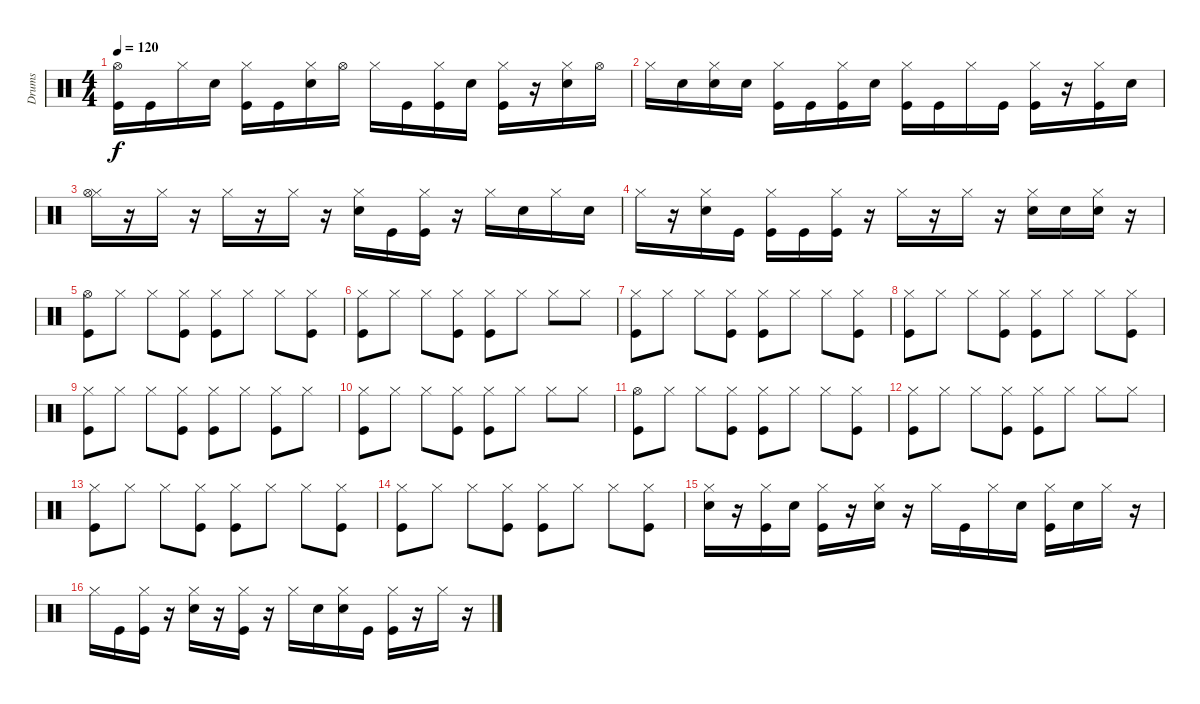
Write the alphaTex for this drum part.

\track ("Drums" "Drums") {instrument percussion}
\staff {score}
\articulation defaults
\ts (4 4)
\tempo 120
\clef neutral
\ks c
("Hi-Hat (open)" "Kick (hit)").16{dy f} "Kick (hit)".16 "Hi-Hat (closed)".16 "Electric Snare (hit)".16 ("Hi-Hat (closed)" "Kick (hit)").16 "Kick (hit)".16 ("Hi-Hat (closed)" "Electric Snare (hit)").16 "Hi-Hat (open)".16 "Hi-Hat (closed)".16 "Kick (hit)".16 ("Hi-Hat (closed)" "Kick (hit)").16 "Electric Snare (hit)".16 ("Hi-Hat (closed)" "Kick (hit)").16 r.16 ("Hi-Hat (closed)" "Electric Snare (hit)").16 "Hi-Hat (open)".16 |
"Hi-Hat (closed)".16 "Electric Snare (hit)".16 ("Hi-Hat (closed)" "Electric Snare (hit)").16 "Electric Snare (hit)".16 ("Hi-Hat (closed)" "Kick (hit)").16 "Kick (hit)".16 ("Hi-Hat (closed)" "Kick (hit)").16 "Electric Snare (hit)".16 ("Hi-Hat (closed)" "Kick (hit)").16 "Kick (hit)".16 "Hi-Hat (closed)".16 "Kick (hit)".16 ("Hi-Hat (closed)" "Kick (hit)").16 r.16 ("Hi-Hat (closed)" "Kick (hit)").16 "Electric Snare (hit)".16 |
("Hi-Hat (closed)" "Hi-Hat (open)").16 r.16 "Hi-Hat (closed)".16 r.16 "Hi-Hat (closed)".16 r.16 "Hi-Hat (closed)".16 r.16 ("Hi-Hat (closed)" "Electric Snare (hit)").16 "Kick (hit)".16 ("Hi-Hat (closed)" "Kick (hit)").16 r.16 "Hi-Hat (closed)".16 "Electric Snare (hit)".16 "Hi-Hat (closed)".16 "Electric Snare (hit)".16 |
"Hi-Hat (closed)".16 r.16 ("Hi-Hat (closed)" "Electric Snare (hit)").16 "Kick (hit)".16 ("Hi-Hat (closed)" "Kick (hit)").16 "Kick (hit)".16 ("Hi-Hat (closed)" "Kick (hit)").16 r.16 "Hi-Hat (closed)".16 r.16 "Hi-Hat (closed)".16 r.16 ("Hi-Hat (closed)" "Electric Snare (hit)").16 "Electric Snare (hit)".16 ("Hi-Hat (closed)" "Electric Snare (hit)").16 r.16 |
("Hi-Hat (open)" "Kick (hit)").8 "Hi-Hat (closed)".8 "Hi-Hat (closed)".8 ("Hi-Hat (closed)" "Kick (hit)").8 ("Hi-Hat (closed)" "Kick (hit)").8 "Hi-Hat (closed)".8 "Hi-Hat (closed)".8 ("Hi-Hat (closed)" "Kick (hit)").8 |
("Hi-Hat (closed)" "Kick (hit)").8 "Hi-Hat (closed)".8 "Hi-Hat (closed)".8 ("Hi-Hat (closed)" "Kick (hit)").8 ("Hi-Hat (closed)" "Kick (hit)").8 "Hi-Hat (closed)".8 "Hi-Hat (closed)".8 "Hi-Hat (closed)".8 |
("Hi-Hat (closed)" "Kick (hit)").8 "Hi-Hat (closed)".8 "Hi-Hat (closed)".8 ("Hi-Hat (closed)" "Kick (hit)").8 ("Hi-Hat (closed)" "Kick (hit)").8 "Hi-Hat (closed)".8 "Hi-Hat (closed)".8 ("Hi-Hat (closed)" "Kick (hit)").8 |
("Hi-Hat (closed)" "Kick (hit)").8 "Hi-Hat (closed)".8 "Hi-Hat (closed)".8 ("Hi-Hat (closed)" "Kick (hit)").8 ("Hi-Hat (closed)" "Kick (hit)").8 "Hi-Hat (closed)".8 "Hi-Hat (closed)".8 ("Hi-Hat (closed)" "Kick (hit)").8 |
("Hi-Hat (closed)" "Kick (hit)").8 "Hi-Hat (closed)".8 "Hi-Hat (closed)".8 ("Hi-Hat (closed)" "Kick (hit)").8 ("Hi-Hat (closed)" "Kick (hit)").8 "Hi-Hat (closed)".8 ("Hi-Hat (closed)" "Kick (hit)").8 "Hi-Hat (closed)".8 |
("Hi-Hat (closed)" "Kick (hit)").8 "Hi-Hat (closed)".8 "Hi-Hat (closed)".8 ("Hi-Hat (closed)" "Kick (hit)").8 ("Hi-Hat (closed)" "Kick (hit)").8 "Hi-Hat (closed)".8 "Hi-Hat (closed)".8 "Hi-Hat (closed)".8 |
("Hi-Hat (open)" "Kick (hit)").8 "Hi-Hat (closed)".8 "Hi-Hat (closed)".8 ("Hi-Hat (closed)" "Kick (hit)").8 ("Hi-Hat (closed)" "Kick (hit)").8 "Hi-Hat (closed)".8 "Hi-Hat (closed)".8 ("Hi-Hat (closed)" "Kick (hit)").8 |
("Hi-Hat (closed)" "Kick (hit)").8 "Hi-Hat (closed)".8 "Hi-Hat (closed)".8 ("Hi-Hat (closed)" "Kick (hit)").8 ("Hi-Hat (closed)" "Kick (hit)").8 "Hi-Hat (closed)".8 "Hi-Hat (closed)".8 "Hi-Hat (closed)".8 |
("Hi-Hat (closed)" "Kick (hit)").8 "Hi-Hat (closed)".8 "Hi-Hat (closed)".8 ("Hi-Hat (closed)" "Kick (hit)").8 ("Hi-Hat (closed)" "Kick (hit)").8 "Hi-Hat (closed)".8 "Hi-Hat (closed)".8 ("Hi-Hat (closed)" "Kick (hit)").8 |
("Hi-Hat (closed)" "Kick (hit)").8 "Hi-Hat (closed)".8 "Hi-Hat (closed)".8 ("Hi-Hat (closed)" "Kick (hit)").8 ("Hi-Hat (closed)" "Kick (hit)").8 "Hi-Hat (closed)".8 "Hi-Hat (closed)".8 ("Hi-Hat (closed)" "Kick (hit)").8 |
("Hi-Hat (closed)" "Electric Snare (hit)").16 r.16 ("Hi-Hat (closed)" "Kick (hit)").16 "Electric Snare (hit)".16 ("Hi-Hat (closed)" "Kick (hit)").16 r.16 ("Hi-Hat (closed)" "Electric Snare (hit)").16 r.16 "Hi-Hat (closed)".16 "Kick (hit)".16 "Hi-Hat (closed)".16 "Electric Snare (hit)".16 ("Kick (hit)" "Hi-Hat (closed)").16 "Electric Snare (hit)".16 "Hi-Hat (closed)".16 r.16 |
"Hi-Hat (closed)".16 "Kick (hit)".16 ("Hi-Hat (closed)" "Kick (hit)").16 r.16 ("Hi-Hat (closed)" "Electric Snare (hit)").16 r.16 ("Hi-Hat (closed)" "Kick (hit)").16 r.16 "Hi-Hat (closed)".16 "Electric Snare (hit)".16 ("Hi-Hat (closed)" "Electric Snare (hit)").16 "Kick (hit)".16 ("Hi-Hat (closed)" "Kick (hit)").16 r.16 "Hi-Hat (closed)".16 r.16
